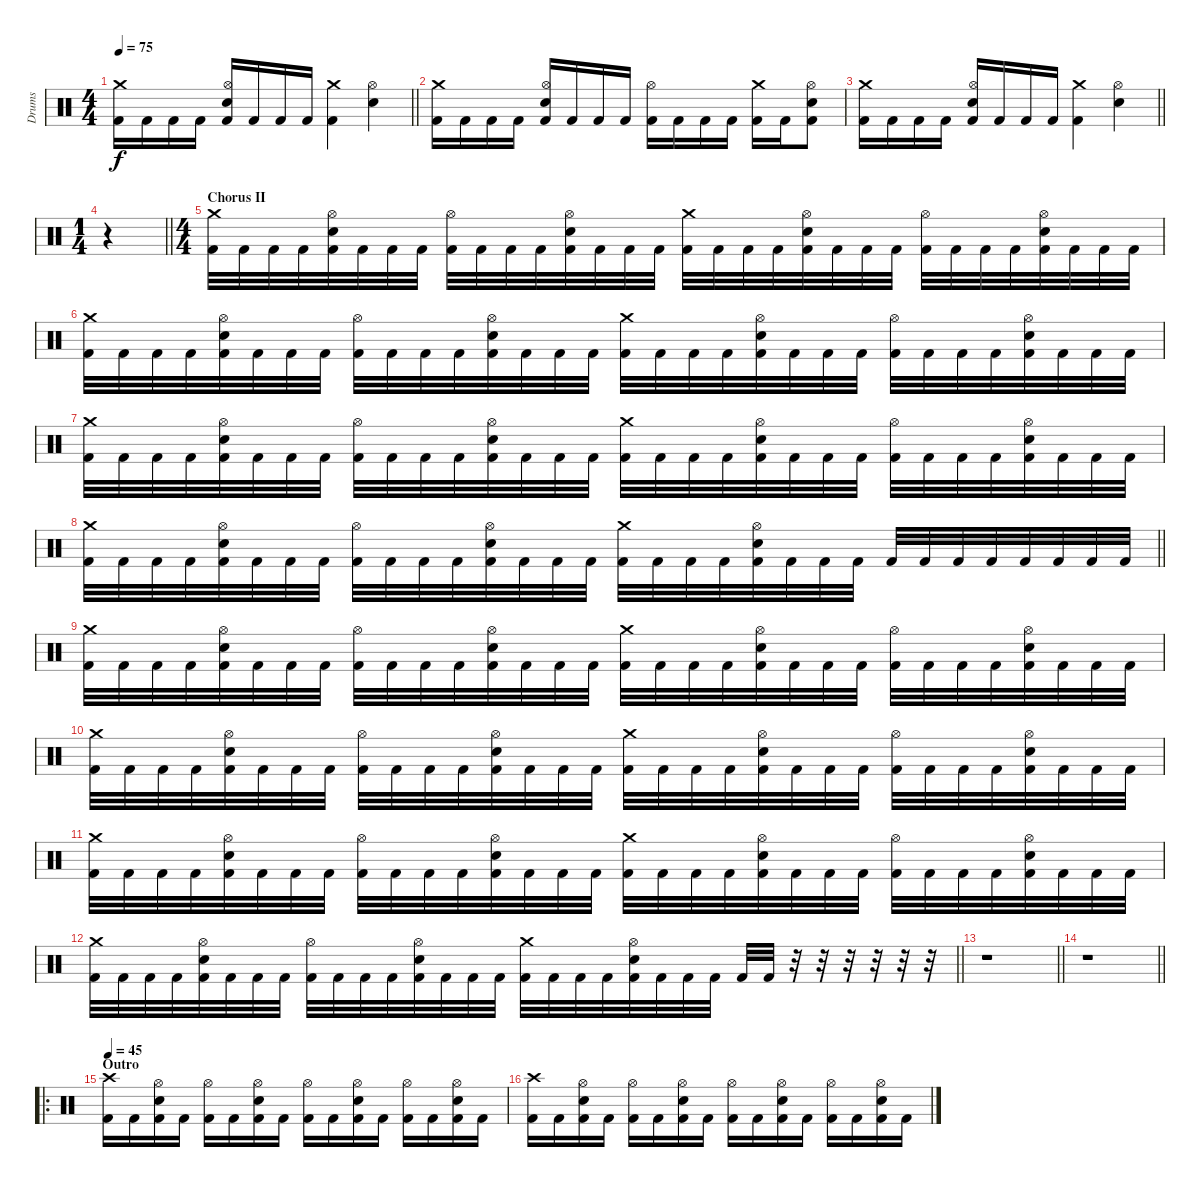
\track ("Drums" "Drums") {instrument percussion}
\staff {score}
\articulation defaults
\ts (4 4)
\tempo 75
\clef neutral
\barLineRight lightlight
\ks c
("Crash medium (hit)" "Kick (hit) 2").16{dy f} "Kick (hit) 2".16 "Kick (hit) 2".16 "Kick (hit) 2".16 ("Hi-Hat (open)" "Snare (hit) 2" "Kick (hit) 2").16 "Kick (hit) 2".16 "Kick (hit) 2".16 "Kick (hit) 2".16 ("Crash medium (hit)" "Kick (hit) 2").4 ("Hi-Hat (open)" "Snare (hit) 2").4 |
("Crash medium (hit)" "Kick (hit) 2").16 "Kick (hit) 2".16 "Kick (hit) 2".16 "Kick (hit) 2".16 ("Hi-Hat (open)" "Snare (hit) 2" "Kick (hit) 2").16 "Kick (hit) 2".16 "Kick (hit) 2".16 "Kick (hit) 2".16 ("Hi-Hat (open)" "Kick (hit) 2").16 "Kick (hit) 2".16 "Kick (hit) 2".16 "Kick (hit) 2".16 ("Crash medium (hit)" "Kick (hit) 2").16 "Kick (hit) 2".16 ("Hi-Hat (open)" "Snare (hit) 2" "Kick (hit) 2").8 |
\barLineRight lightlight
("Crash medium (hit)" "Kick (hit) 2").16 "Kick (hit) 2".16 "Kick (hit) 2".16 "Kick (hit) 2".16 ("Hi-Hat (open)" "Snare (hit) 2" "Kick (hit) 2").16 "Kick (hit) 2".16 "Kick (hit) 2".16 "Kick (hit) 2".16 ("Crash medium (hit)" "Kick (hit) 2").4 ("Hi-Hat (open)" "Snare (hit) 2").4 |
\ts (1 4)
\barLineRight lightlight
r.4 |
\ts (4 4)
\section ("" "Chorus II")
("Crash medium (hit)" "Kick (hit) 2").32 "Kick (hit) 2".32 "Kick (hit) 2".32 "Kick (hit) 2".32 ("Hi-Hat (open)" "Snare (hit) 2" "Kick (hit) 2").32 "Kick (hit) 2".32 "Kick (hit) 2".32 "Kick (hit) 2".32 ("Hi-Hat (open)" "Kick (hit) 2").32 "Kick (hit) 2".32 "Kick (hit) 2".32 "Kick (hit) 2".32 ("Hi-Hat (open)" "Snare (hit) 2" "Kick (hit) 2").32 "Kick (hit) 2".32 "Kick (hit) 2".32 "Kick (hit) 2".32 ("Crash medium (hit)" "Kick (hit) 2").32 "Kick (hit) 2".32 "Kick (hit) 2".32 "Kick (hit) 2".32 ("Hi-Hat (open)" "Snare (hit) 2" "Kick (hit) 2").32 "Kick (hit) 2".32 "Kick (hit) 2".32 "Kick (hit) 2".32 ("Hi-Hat (open)" "Kick (hit) 2").32 "Kick (hit) 2".32 "Kick (hit) 2".32 "Kick (hit) 2".32 ("Hi-Hat (open)" "Snare (hit) 2" "Kick (hit) 2").32 "Kick (hit) 2".32 "Kick (hit) 2".32 "Kick (hit) 2".32 |
("Crash medium (hit)" "Kick (hit) 2").32 "Kick (hit) 2".32 "Kick (hit) 2".32 "Kick (hit) 2".32 ("Hi-Hat (open)" "Snare (hit) 2" "Kick (hit) 2").32 "Kick (hit) 2".32 "Kick (hit) 2".32 "Kick (hit) 2".32 ("Hi-Hat (open)" "Kick (hit) 2").32 "Kick (hit) 2".32 "Kick (hit) 2".32 "Kick (hit) 2".32 ("Hi-Hat (open)" "Snare (hit) 2" "Kick (hit) 2").32 "Kick (hit) 2".32 "Kick (hit) 2".32 "Kick (hit) 2".32 ("Crash medium (hit)" "Kick (hit) 2").32 "Kick (hit) 2".32 "Kick (hit) 2".32 "Kick (hit) 2".32 ("Hi-Hat (open)" "Snare (hit) 2" "Kick (hit) 2").32 "Kick (hit) 2".32 "Kick (hit) 2".32 "Kick (hit) 2".32 ("Hi-Hat (open)" "Kick (hit) 2").32 "Kick (hit) 2".32 "Kick (hit) 2".32 "Kick (hit) 2".32 ("Hi-Hat (open)" "Snare (hit) 2" "Kick (hit) 2").32 "Kick (hit) 2".32 "Kick (hit) 2".32 "Kick (hit) 2".32 |
("Crash medium (hit)" "Kick (hit) 2").32 "Kick (hit) 2".32 "Kick (hit) 2".32 "Kick (hit) 2".32 ("Hi-Hat (open)" "Snare (hit) 2" "Kick (hit) 2").32 "Kick (hit) 2".32 "Kick (hit) 2".32 "Kick (hit) 2".32 ("Hi-Hat (open)" "Kick (hit) 2").32 "Kick (hit) 2".32 "Kick (hit) 2".32 "Kick (hit) 2".32 ("Hi-Hat (open)" "Snare (hit) 2" "Kick (hit) 2").32 "Kick (hit) 2".32 "Kick (hit) 2".32 "Kick (hit) 2".32 ("Crash medium (hit)" "Kick (hit) 2").32 "Kick (hit) 2".32 "Kick (hit) 2".32 "Kick (hit) 2".32 ("Hi-Hat (open)" "Snare (hit) 2" "Kick (hit) 2").32 "Kick (hit) 2".32 "Kick (hit) 2".32 "Kick (hit) 2".32 ("Hi-Hat (open)" "Kick (hit) 2").32 "Kick (hit) 2".32 "Kick (hit) 2".32 "Kick (hit) 2".32 ("Hi-Hat (open)" "Snare (hit) 2" "Kick (hit) 2").32 "Kick (hit) 2".32 "Kick (hit) 2".32 "Kick (hit) 2".32 |
\barLineRight lightlight
("Crash medium (hit)" "Kick (hit) 2").32 "Kick (hit) 2".32 "Kick (hit) 2".32 "Kick (hit) 2".32 ("Hi-Hat (open)" "Snare (hit) 2" "Kick (hit) 2").32 "Kick (hit) 2".32 "Kick (hit) 2".32 "Kick (hit) 2".32 ("Hi-Hat (open)" "Kick (hit) 2").32 "Kick (hit) 2".32 "Kick (hit) 2".32 "Kick (hit) 2".32 ("Hi-Hat (open)" "Snare (hit) 2" "Kick (hit) 2").32 "Kick (hit) 2".32 "Kick (hit) 2".32 "Kick (hit) 2".32 ("Crash medium (hit)" "Kick (hit) 2").32 "Kick (hit) 2".32 "Kick (hit) 2".32 "Kick (hit) 2".32 ("Hi-Hat (open)" "Snare (hit) 2" "Kick (hit) 2").32 "Kick (hit) 2".32 "Kick (hit) 2".32 "Kick (hit) 2".32 "Kick (hit) 2".32 "Kick (hit) 2".32 "Kick (hit) 2".32 "Kick (hit) 2".32 "Kick (hit) 2".32 "Kick (hit) 2".32 "Kick (hit) 2".32 "Kick (hit) 2".32 |
("Crash medium (hit)" "Kick (hit) 2").32 "Kick (hit) 2".32 "Kick (hit) 2".32 "Kick (hit) 2".32 ("Hi-Hat (open)" "Snare (hit) 2" "Kick (hit) 2").32 "Kick (hit) 2".32 "Kick (hit) 2".32 "Kick (hit) 2".32 ("Hi-Hat (open)" "Kick (hit) 2").32 "Kick (hit) 2".32 "Kick (hit) 2".32 "Kick (hit) 2".32 ("Hi-Hat (open)" "Snare (hit) 2" "Kick (hit) 2").32 "Kick (hit) 2".32 "Kick (hit) 2".32 "Kick (hit) 2".32 ("Crash medium (hit)" "Kick (hit) 2").32 "Kick (hit) 2".32 "Kick (hit) 2".32 "Kick (hit) 2".32 ("Hi-Hat (open)" "Snare (hit) 2" "Kick (hit) 2").32 "Kick (hit) 2".32 "Kick (hit) 2".32 "Kick (hit) 2".32 ("Hi-Hat (open)" "Kick (hit) 2").32 "Kick (hit) 2".32 "Kick (hit) 2".32 "Kick (hit) 2".32 ("Hi-Hat (open)" "Snare (hit) 2" "Kick (hit) 2").32 "Kick (hit) 2".32 "Kick (hit) 2".32 "Kick (hit) 2".32 |
("Crash medium (hit)" "Kick (hit) 2").32 "Kick (hit) 2".32 "Kick (hit) 2".32 "Kick (hit) 2".32 ("Hi-Hat (open)" "Snare (hit) 2" "Kick (hit) 2").32 "Kick (hit) 2".32 "Kick (hit) 2".32 "Kick (hit) 2".32 ("Hi-Hat (open)" "Kick (hit) 2").32 "Kick (hit) 2".32 "Kick (hit) 2".32 "Kick (hit) 2".32 ("Hi-Hat (open)" "Snare (hit) 2" "Kick (hit) 2").32 "Kick (hit) 2".32 "Kick (hit) 2".32 "Kick (hit) 2".32 ("Crash medium (hit)" "Kick (hit) 2").32 "Kick (hit) 2".32 "Kick (hit) 2".32 "Kick (hit) 2".32 ("Hi-Hat (open)" "Snare (hit) 2" "Kick (hit) 2").32 "Kick (hit) 2".32 "Kick (hit) 2".32 "Kick (hit) 2".32 ("Hi-Hat (open)" "Kick (hit) 2").32 "Kick (hit) 2".32 "Kick (hit) 2".32 "Kick (hit) 2".32 ("Hi-Hat (open)" "Snare (hit) 2" "Kick (hit) 2").32 "Kick (hit) 2".32 "Kick (hit) 2".32 "Kick (hit) 2".32 |
("Crash medium (hit)" "Kick (hit) 2").32 "Kick (hit) 2".32 "Kick (hit) 2".32 "Kick (hit) 2".32 ("Hi-Hat (open)" "Snare (hit) 2" "Kick (hit) 2").32 "Kick (hit) 2".32 "Kick (hit) 2".32 "Kick (hit) 2".32 ("Hi-Hat (open)" "Kick (hit) 2").32 "Kick (hit) 2".32 "Kick (hit) 2".32 "Kick (hit) 2".32 ("Hi-Hat (open)" "Snare (hit) 2" "Kick (hit) 2").32 "Kick (hit) 2".32 "Kick (hit) 2".32 "Kick (hit) 2".32 ("Crash medium (hit)" "Kick (hit) 2").32 "Kick (hit) 2".32 "Kick (hit) 2".32 "Kick (hit) 2".32 ("Hi-Hat (open)" "Snare (hit) 2" "Kick (hit) 2").32 "Kick (hit) 2".32 "Kick (hit) 2".32 "Kick (hit) 2".32 ("Hi-Hat (open)" "Kick (hit) 2").32 "Kick (hit) 2".32 "Kick (hit) 2".32 "Kick (hit) 2".32 ("Hi-Hat (open)" "Snare (hit) 2" "Kick (hit) 2").32 "Kick (hit) 2".32 "Kick (hit) 2".32 "Kick (hit) 2".32 |
\barLineRight lightlight
("Crash medium (hit)" "Kick (hit) 2").32 "Kick (hit) 2".32 "Kick (hit) 2".32 "Kick (hit) 2".32 ("Hi-Hat (open)" "Snare (hit) 2" "Kick (hit) 2").32 "Kick (hit) 2".32 "Kick (hit) 2".32 "Kick (hit) 2".32 ("Hi-Hat (open)" "Kick (hit) 2").32 "Kick (hit) 2".32 "Kick (hit) 2".32 "Kick (hit) 2".32 ("Hi-Hat (open)" "Snare (hit) 2" "Kick (hit) 2").32 "Kick (hit) 2".32 "Kick (hit) 2".32 "Kick (hit) 2".32 ("Crash medium (hit)" "Kick (hit) 2").32 "Kick (hit) 2".32 "Kick (hit) 2".32 "Kick (hit) 2".32 ("Hi-Hat (open)" "Snare (hit) 2" "Kick (hit) 2").32 "Kick (hit) 2".32 "Kick (hit) 2".32 "Kick (hit) 2".32 "Kick (hit) 2".32 "Kick (hit) 2".32 r.32 r.32 r.32 r.32 r.32 r.32 |
\barLineRight lightlight
r.1 |
\barLineRight lightlight
r.1 |
\ro
\section ("" "Outro")
\tempo 45
("Crash high (hit)" "Kick (hit) 2").16 "Kick (hit) 2".16 ("Hi-Hat (open)" "Snare (hit) 2" "Kick (hit) 2").16 "Kick (hit) 2".16 ("Hi-Hat (open)" "Kick (hit) 2").16 "Kick (hit) 2".16 ("Hi-Hat (open)" "Snare (hit) 2" "Kick (hit) 2").16 "Kick (hit) 2".16 ("Hi-Hat (open)" "Kick (hit) 2").16 "Kick (hit) 2".16 ("Hi-Hat (open)" "Snare (hit) 2" "Kick (hit) 2").16 "Kick (hit) 2".16 ("Hi-Hat (open)" "Kick (hit) 2").16 "Kick (hit) 2".16 ("Hi-Hat (open)" "Snare (hit) 2" "Kick (hit) 2").16 "Kick (hit) 2".16 |
("Crash high (hit)" "Kick (hit) 2").16 "Kick (hit) 2".16 ("Hi-Hat (open)" "Snare (hit) 2" "Kick (hit) 2").16 "Kick (hit) 2".16 ("Hi-Hat (open)" "Kick (hit) 2").16 "Kick (hit) 2".16 ("Hi-Hat (open)" "Snare (hit) 2" "Kick (hit) 2").16 "Kick (hit) 2".16 ("Hi-Hat (open)" "Kick (hit) 2").16 "Kick (hit) 2".16 ("Hi-Hat (open)" "Snare (hit) 2" "Kick (hit) 2").16 "Kick (hit) 2".16 ("Hi-Hat (open)" "Kick (hit) 2").16 "Kick (hit) 2".16 ("Hi-Hat (open)" "Snare (hit) 2" "Kick (hit) 2").16 "Kick (hit) 2".16
